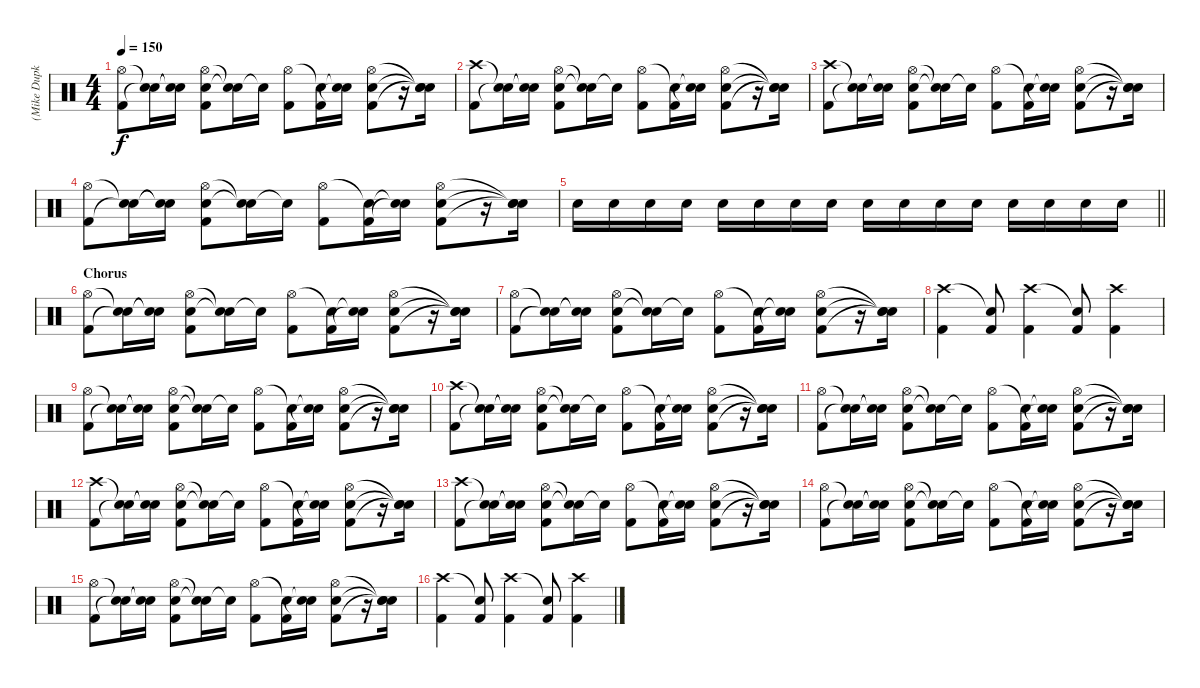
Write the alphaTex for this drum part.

\track ("(Mike Dupke) Drums" "(Mike Dupk") {instrument percussion}
\staff {score}
\articulation defaults
\ts (4 4)
\tempo 150
\clef neutral
\ks c
("Hi-Hat (open)" "Kick (hit) 2").8{dy f} ("Snare (hit)"{t} "Snare (hit)"{t}).16 ("Snare (hit)"{t} "Snare (hit)"{t}).16 ("Hi-Hat (open)" "Snare (hit) 2" "Kick (hit) 2").8 ("Snare (hit)"{t} "Snare (hit)"{t}).16 "Snare (hit)"{t}.16 ("Hi-Hat (open)" "Kick (hit) 2").8 ("Snare (hit)"{t} "Kick (hit) 2").16 ("Snare (hit)"{t} "Snare (hit)"{t}).16 ("Hi-Hat (open)" "Snare (hit) 2" "Kick (hit) 2").8 r.16 ("Snare (hit)"{t} "Snare (hit)"{t} "Snare (hit)"{t}).16 |
("Crash high (hit)" "Kick (hit) 2").8 ("Snare (hit)"{t} "Snare (hit)"{t}).16 ("Snare (hit)"{t} "Snare (hit)"{t}).16 ("Hi-Hat (open)" "Snare (hit) 2" "Kick (hit) 2").8 ("Snare (hit)"{t} "Snare (hit)"{t}).16 "Snare (hit)"{t}.16 ("Hi-Hat (open)" "Kick (hit) 2").8 ("Snare (hit)"{t} "Kick (hit) 2").16 ("Snare (hit)"{t} "Snare (hit)"{t}).16 ("Hi-Hat (open)" "Snare (hit) 2" "Kick (hit) 2").8 r.16 ("Snare (hit)"{t} "Snare (hit)"{t} "Snare (hit)"{t}).16 |
("Crash high (hit)" "Kick (hit) 2").8 ("Snare (hit)"{t} "Snare (hit)"{t}).16 ("Snare (hit)"{t} "Snare (hit)"{t}).16 ("Hi-Hat (open)" "Snare (hit) 2" "Kick (hit) 2").8 ("Snare (hit)"{t} "Snare (hit)"{t}).16 "Snare (hit)"{t}.16 ("Hi-Hat (open)" "Kick (hit) 2").8 ("Snare (hit)"{t} "Kick (hit) 2").16 ("Snare (hit)"{t} "Snare (hit)"{t}).16 ("Hi-Hat (open)" "Snare (hit) 2" "Kick (hit) 2").8 r.16 ("Snare (hit)"{t} "Snare (hit)"{t} "Snare (hit)"{t}).16 |
("Hi-Hat (open)" "Kick (hit) 2").8 ("Snare (hit)"{t} "Snare (hit)"{t}).16 ("Snare (hit)"{t} "Snare (hit)"{t}).16 ("Hi-Hat (open)" "Snare (hit) 2" "Kick (hit) 2").8 ("Snare (hit)"{t} "Snare (hit)"{t}).16 "Snare (hit)"{t}.16 ("Hi-Hat (open)" "Kick (hit) 2").8 ("Snare (hit)"{t} "Kick (hit) 2").16 ("Snare (hit)"{t} "Snare (hit)"{t}).16 ("Hi-Hat (open)" "Snare (hit) 2" "Kick (hit) 2").8 r.16 ("Snare (hit)"{t} "Snare (hit)"{t} "Snare (hit)"{t}).16 |
\barLineRight lightlight "Snare (hit) 2".16 "Snare (hit) 2".16 "Snare (hit) 2".16 "Snare (hit) 2".16 "Snare (hit) 2".16 "Snare (hit) 2".16 "Snare (hit) 2".16 "Snare (hit) 2".16 "Snare (hit) 2".16 "Snare (hit) 2".16 "Snare (hit) 2".16 "Snare (hit) 2".16 "Snare (hit) 2".16 "Snare (hit) 2".16 "Snare (hit) 2".16 "Snare (hit) 2".16
|
\section ("" "Chorus")
("Hi-Hat (open)" "Kick (hit) 2").8 ("Snare (hit)"{t} "Snare (hit)"{t}).16 ("Snare (hit)"{t} "Snare (hit)"{t}).16 ("Hi-Hat (open)" "Snare (hit) 2" "Kick (hit) 2").8 ("Snare (hit)"{t} "Snare (hit)"{t}).16 "Snare (hit)"{t}.16 ("Hi-Hat (open)" "Kick (hit) 2").8 ("Snare (hit)"{t} "Kick (hit) 2").16 ("Snare (hit)"{t} "Snare (hit)"{t}).16 ("Hi-Hat (open)" "Snare (hit) 2" "Kick (hit) 2").8 r.16 ("Snare (hit)"{t} "Snare (hit)"{t} "Snare (hit)"{t}).16 |
("Hi-Hat (open)" "Kick (hit) 2").8 ("Snare (hit)"{t} "Snare (hit)"{t}).16 ("Snare (hit)"{t} "Snare (hit)"{t}).16 ("Hi-Hat (open)" "Snare (hit) 2" "Kick (hit) 2").8 ("Snare (hit)"{t} "Snare (hit)"{t}).16 "Snare (hit)"{t}.16 ("Hi-Hat (open)" "Kick (hit) 2").8 ("Snare (hit)"{t} "Kick (hit) 2").16 ("Snare (hit)"{t} "Snare (hit)"{t}).16 ("Hi-Hat (open)" "Snare (hit) 2" "Kick (hit) 2").8 r.16 ("Snare (hit)"{t} "Snare (hit)"{t} "Snare (hit)"{t}).16 |
("Crash high (hit)" "Kick (hit) 2").4 ("Snare (hit)"{t} "Kick (hit) 2").8 ("Crash high (hit)" "Kick (hit) 2").4 ("Snare (hit)"{t} "Kick (hit) 2").8 ("Crash high (hit)" "Kick (hit) 2").4 |
("Hi-Hat (open)" "Kick (hit) 2").8 ("Snare (hit)"{t} "Snare (hit)"{t}).16 ("Snare (hit)"{t} "Snare (hit)"{t}).16 ("Hi-Hat (open)" "Snare (hit) 2" "Kick (hit) 2").8 ("Snare (hit)"{t} "Snare (hit)"{t}).16 "Snare (hit)"{t}.16 ("Hi-Hat (open)" "Kick (hit) 2").8 ("Snare (hit)"{t} "Kick (hit) 2").16 ("Snare (hit)"{t} "Snare (hit)"{t}).16 ("Hi-Hat (open)" "Snare (hit) 2" "Kick (hit) 2").8 r.16 ("Snare (hit)"{t} "Snare (hit)"{t} "Snare (hit)"{t}).16 |
("Crash high (hit)" "Kick (hit) 2").8 ("Snare (hit)"{t} "Snare (hit)"{t}).16 ("Snare (hit)"{t} "Snare (hit)"{t}).16 ("Hi-Hat (open)" "Snare (hit) 2" "Kick (hit) 2").8 ("Snare (hit)"{t} "Snare (hit)"{t}).16 "Snare (hit)"{t}.16 ("Hi-Hat (open)" "Kick (hit) 2").8 ("Snare (hit)"{t} "Kick (hit) 2").16 ("Snare (hit)"{t} "Snare (hit)"{t}).16 ("Hi-Hat (open)" "Snare (hit) 2" "Kick (hit) 2").8 r.16 ("Snare (hit)"{t} "Snare (hit)"{t} "Snare (hit)"{t}).16 |
("Hi-Hat (open)" "Kick (hit) 2").8 ("Snare (hit)"{t} "Snare (hit)"{t}).16 ("Snare (hit)"{t} "Snare (hit)"{t}).16 ("Hi-Hat (open)" "Snare (hit) 2" "Kick (hit) 2").8 ("Snare (hit)"{t} "Snare (hit)"{t}).16 "Snare (hit)"{t}.16 ("Hi-Hat (open)" "Kick (hit) 2").8 ("Snare (hit)"{t} "Kick (hit) 2").16 ("Snare (hit)"{t} "Snare (hit)"{t}).16 ("Hi-Hat (open)" "Snare (hit) 2" "Kick (hit) 2").8 r.16 ("Snare (hit)"{t} "Snare (hit)"{t} "Snare (hit)"{t}).16 |
("Crash high (hit)" "Kick (hit) 2").8 ("Snare (hit)"{t} "Snare (hit)"{t}).16 ("Snare (hit)"{t} "Snare (hit)"{t}).16 ("Hi-Hat (open)" "Snare (hit) 2" "Kick (hit) 2").8 ("Snare (hit)"{t} "Snare (hit)"{t}).16 "Snare (hit)"{t}.16 ("Hi-Hat (open)" "Kick (hit) 2").8 ("Snare (hit)"{t} "Kick (hit) 2").16 ("Snare (hit)"{t} "Snare (hit)"{t}).16 ("Hi-Hat (open)" "Snare (hit) 2" "Kick (hit) 2").8 r.16 ("Snare (hit)"{t} "Snare (hit)"{t} "Snare (hit)"{t}).16 |
("Crash high (hit)" "Kick (hit) 2").8 ("Snare (hit)"{t} "Snare (hit)"{t}).16 ("Snare (hit)"{t} "Snare (hit)"{t}).16 ("Hi-Hat (open)" "Snare (hit) 2" "Kick (hit) 2").8 ("Snare (hit)"{t} "Snare (hit)"{t}).16 "Snare (hit)"{t}.16 ("Hi-Hat (open)" "Kick (hit) 2").8 ("Snare (hit)"{t} "Kick (hit) 2").16 ("Snare (hit)"{t} "Snare (hit)"{t}).16 ("Hi-Hat (open)" "Snare (hit) 2" "Kick (hit) 2").8 r.16 ("Snare (hit)"{t} "Snare (hit)"{t} "Snare (hit)"{t}).16 |
("Hi-Hat (open)" "Kick (hit) 2").8 ("Snare (hit)"{t} "Snare (hit)"{t}).16 ("Snare (hit)"{t} "Snare (hit)"{t}).16 ("Hi-Hat (open)" "Snare (hit) 2" "Kick (hit) 2").8 ("Snare (hit)"{t} "Snare (hit)"{t}).16 "Snare (hit)"{t}.16 ("Hi-Hat (open)" "Kick (hit) 2").8 ("Snare (hit)"{t} "Kick (hit) 2").16 ("Snare (hit)"{t} "Snare (hit)"{t}).16 ("Hi-Hat (open)" "Snare (hit) 2" "Kick (hit) 2").8 r.16 ("Snare (hit)"{t} "Snare (hit)"{t} "Snare (hit)"{t}).16 |
("Hi-Hat (open)" "Kick (hit) 2").8 ("Snare (hit)"{t} "Snare (hit)"{t}).16 ("Snare (hit)"{t} "Snare (hit)"{t}).16 ("Hi-Hat (open)" "Snare (hit) 2" "Kick (hit) 2").8 ("Snare (hit)"{t} "Snare (hit)"{t}).16 "Snare (hit)"{t}.16 ("Hi-Hat (open)" "Kick (hit) 2").8 ("Snare (hit)"{t} "Kick (hit) 2").16 ("Snare (hit)"{t} "Snare (hit)"{t}).16 ("Hi-Hat (open)" "Snare (hit) 2" "Kick (hit) 2").8 r.16 ("Snare (hit)"{t} "Snare (hit)"{t} "Snare (hit)"{t}).16 |
("Crash high (hit)" "Kick (hit) 2").4 ("Snare (hit)"{t} "Kick (hit) 2").8 ("Crash high (hit)" "Kick (hit) 2").4 ("Snare (hit)"{t} "Kick (hit) 2").8 ("Crash high (hit)" "Kick (hit) 2").4
